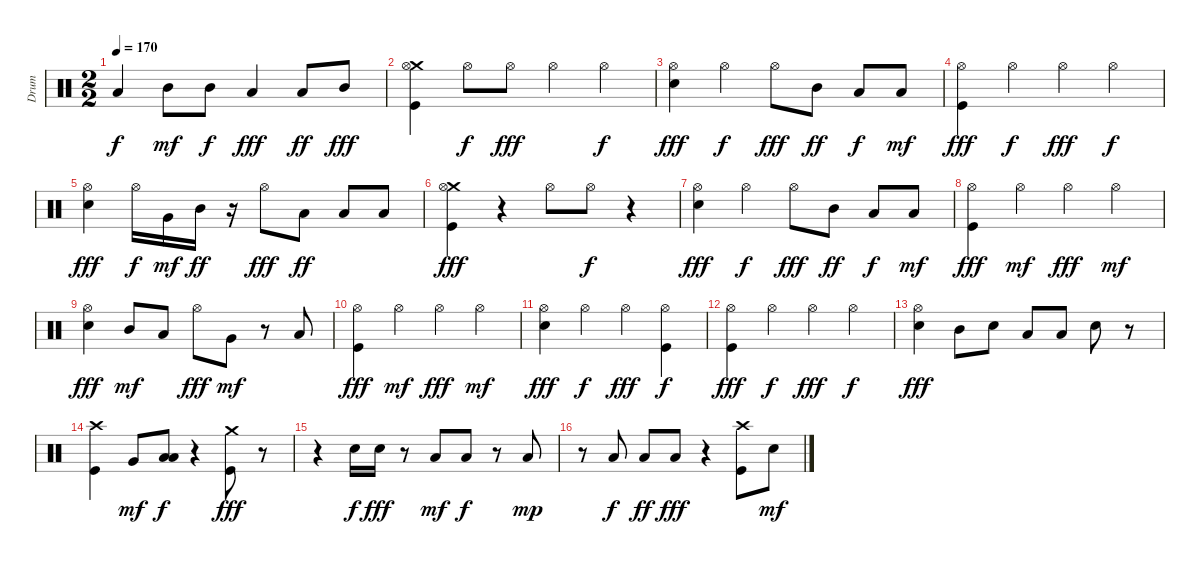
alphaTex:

\track ("Drum" "Drum") {instrument percussion}
\staff {score}
\articulation defaults
\ts (2 2)
\tempo 170
\clef neutral
\ks c "Low Floor Tom (hit)".4{dy f} "Mid Tom (hit)".8{dy mf} "Mid Tom (hit)".8{dy f} "Low Tom (hit)".4{dy fff} "Low Floor Tom (hit)".8{dy ff} "Mid Tom (hit)".8{dy fff}
|
("Crash medium (hit)" "Hi-Hat (open)" "Kick (hit)").4 "Hi-Hat (open)".8{dy f} "Hi-Hat (open)".8{dy fff} "Hi-Hat (open)".4 "Hi-Hat (open)".4{dy f} |
("Electric Snare (hit)" "Hi-Hat (open)").4{dy fff} "Hi-Hat (open)".4{dy f} "Hi-Hat (open)".8{dy fff} "Mid Tom (hit)".8{dy ff} "Low Tom (hit)".8{dy f} "Low Floor Tom (hit)".8{dy mf} |
("Kick (hit)" "Hi-Hat (open)").4{dy fff} "Hi-Hat (open)".4{dy f} "Hi-Hat (open)".4{dy fff} "Hi-Hat (open)".4{dy f} |
("Electric Snare (hit)" "Hi-Hat (open)").4{dy fff} "Hi-Hat (open)".16{dy f} "Very Low Tom (hit)".16{dy mf} "Mid Tom (hit)".16{dy ff} r.16 "Hi-Hat (open)".8{dy fff} "Low Tom (hit)".8{dy ff} "Low Floor Tom (hit)".8 "Low Floor Tom (hit)".8 |
("Crash medium (hit)" "Hi-Hat (open)" "Kick (hit)").4{dy fff} r.4 "Hi-Hat (open)".8 "Hi-Hat (open)".8{dy f} r.4 |
("Hi-Hat (open)" "Electric Snare (hit)").4{dy fff} "Hi-Hat (open)".4{dy f} "Hi-Hat (open)".8{dy fff} "Mid Tom (hit)".8{dy ff} "Low Tom (hit)".8{dy f} "Low Floor Tom (hit)".8{dy mf} |
("Kick (hit)" "Hi-Hat (open)").4{dy fff} "Hi-Hat (open)".4{dy mf} "Hi-Hat (open)".4{dy fff} "Hi-Hat (open)".4{dy mf} |
("Hi-Hat (open)" "Electric Snare (hit)").4{dy fff} "Mid Tom (hit)".8{dy mf} "Low Tom (hit)".8 "Hi-Hat (open)".8{dy fff} "Very Low Tom (hit)".8{dy mf} r.8 "Low Floor Tom (hit)".8 |
("Kick (hit)" "Hi-Hat (open)").4{dy fff} "Hi-Hat (open)".4{dy mf} "Hi-Hat (open)".4{dy fff} "Hi-Hat (open)".4{dy mf} |
("Hi-Hat (open)" "Electric Snare (hit)").4{dy fff} "Hi-Hat (open)".4{dy f} "Hi-Hat (open)".4{dy fff} ("Hi-Hat (open)" "Kick (hit)").4{dy f} |
("Hi-Hat (open)" "Kick (hit)").4{dy fff} "Hi-Hat (open)".4{dy f} "Hi-Hat (open)".4{dy fff} "Hi-Hat (open)".4{dy f} |
("Electric Snare (hit)" "Hi-Hat (open)").4{dy fff} "Mid Tom (hit)".8 "Electric Snare (hit)".8 "Low Floor Tom (hit)".8 "Low Floor Tom (hit)".8 "Electric Snare (hit)".8 r.8 |
("Crash high (hit)" "Kick (hit)").4 "Very Low Tom (hit)".8{dy mf} ("Low Tom (hit)" "Low Floor Tom (hit)").8{dy f} r.4 ("Crash medium (hit)" "Kick (hit)").8{dy fff} r.8 |
r.4 "Electric Snare (hit)".16{dy f} "Electric Snare (hit)".16{dy fff} r.8 "Low Tom (hit)".8{dy mf} "Low Tom (hit)".8{dy f} r.8 "Low Floor Tom (hit)".8{dy mp} |
r.8 "Low Floor Tom (hit)".8{dy f} "Low Floor Tom (hit)".8{dy ff} "Low Floor Tom (hit)".8{dy fff} r.4 ("Crash high (hit)" "Kick (hit)").8 "Electric Snare (hit)".8{dy mf}
